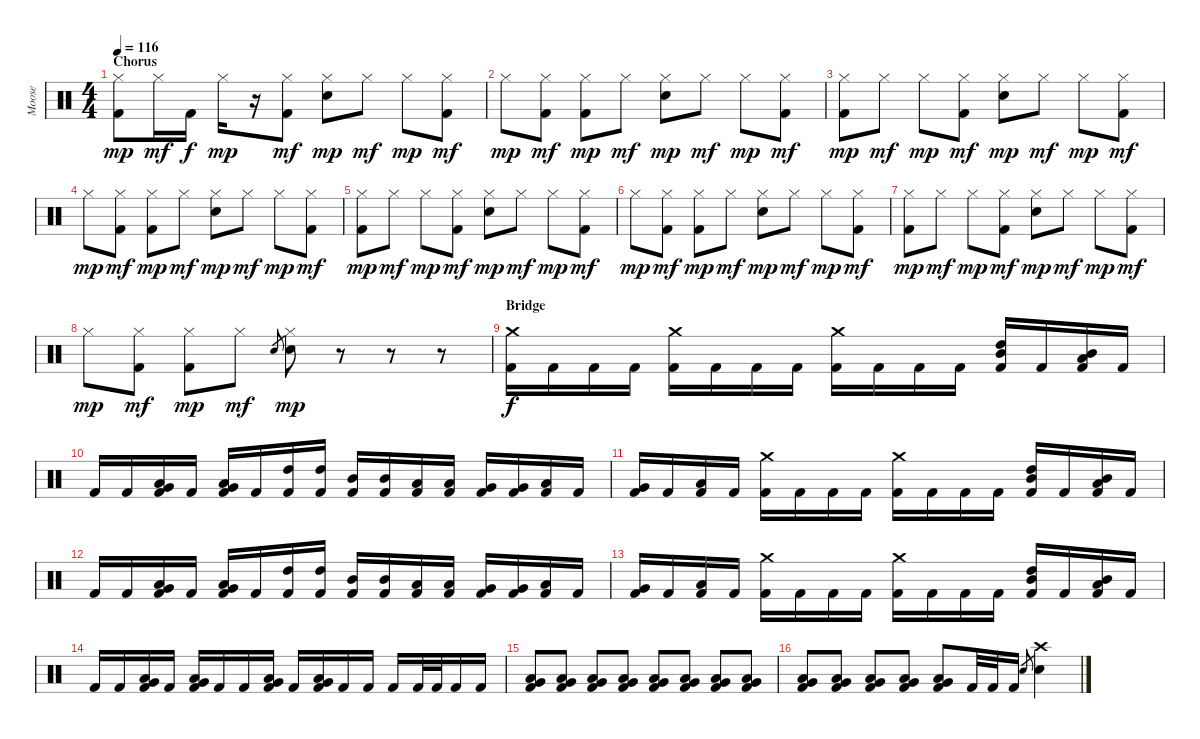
\track ("Moose" "Moose") {instrument percussion}
\staff {score}
\articulation defaults
\ts (4 4)
\section ("" "Chorus")
\tempo 116
\clef neutral
\ks c
("Kick (hit) 2" "Hi-Hat (closed)").8{dy mp} "Hi-Hat (closed)".16{dy mf} "Kick (hit) 2".16{dy f} "Hi-Hat (closed)".16{dy mp} r.16 ("Kick (hit) 2" "Hi-Hat (closed)").8{dy mf} ("Snare (hit) 2" "Hi-Hat (closed)").8{dy mp} "Hi-Hat (closed)".8{dy mf} "Hi-Hat (closed)".8{dy mp} ("Kick (hit) 2" "Hi-Hat (closed)").8{dy mf} |
"Hi-Hat (closed)".8{dy mp} ("Kick (hit) 2" "Hi-Hat (closed)").8{dy mf} ("Kick (hit) 2" "Hi-Hat (closed)").8{dy mp} "Hi-Hat (closed)".8{dy mf} ("Snare (hit) 2" "Hi-Hat (closed)").8{dy mp} "Hi-Hat (closed)".8{dy mf} "Hi-Hat (closed)".8{dy mp} ("Kick (hit) 2" "Hi-Hat (closed)").8{dy mf} |
("Kick (hit) 2" "Hi-Hat (closed)").8{dy mp} "Hi-Hat (closed)".8{dy mf} "Hi-Hat (closed)".8{dy mp} ("Kick (hit) 2" "Hi-Hat (closed)").8{dy mf} ("Snare (hit) 2" "Hi-Hat (closed)").8{dy mp} "Hi-Hat (closed)".8{dy mf} "Hi-Hat (closed)".8{dy mp} ("Kick (hit) 2" "Hi-Hat (closed)").8{dy mf} |
"Hi-Hat (closed)".8{dy mp} ("Kick (hit) 2" "Hi-Hat (closed)").8{dy mf} ("Kick (hit) 2" "Hi-Hat (closed)").8{dy mp} "Hi-Hat (closed)".8{dy mf} ("Snare (hit) 2" "Hi-Hat (closed)").8{dy mp} "Hi-Hat (closed)".8{dy mf} "Hi-Hat (closed)".8{dy mp} ("Kick (hit) 2" "Hi-Hat (closed)").8{dy mf} |
("Kick (hit) 2" "Hi-Hat (closed)").8{dy mp} "Hi-Hat (closed)".8{dy mf} "Hi-Hat (closed)".8{dy mp} ("Kick (hit) 2" "Hi-Hat (closed)").8{dy mf} ("Snare (hit) 2" "Hi-Hat (closed)").8{dy mp} "Hi-Hat (closed)".8{dy mf} "Hi-Hat (closed)".8{dy mp} ("Kick (hit) 2" "Hi-Hat (closed)").8{dy mf} |
"Hi-Hat (closed)".8{dy mp} ("Kick (hit) 2" "Hi-Hat (closed)").8{dy mf} ("Kick (hit) 2" "Hi-Hat (closed)").8{dy mp} "Hi-Hat (closed)".8{dy mf} ("Snare (hit) 2" "Hi-Hat (closed)").8{dy mp} "Hi-Hat (closed)".8{dy mf} "Hi-Hat (closed)".8{dy mp} ("Kick (hit) 2" "Hi-Hat (closed)").8{dy mf} |
("Kick (hit) 2" "Hi-Hat (closed)").8{dy mp} "Hi-Hat (closed)".8{dy mf} "Hi-Hat (closed)".8{dy mp} ("Kick (hit) 2" "Hi-Hat (closed)").8{dy mf} ("Snare (hit) 2" "Hi-Hat (closed)").8{dy mp} "Hi-Hat (closed)".8{dy mf} "Hi-Hat (closed)".8{dy mp} ("Kick (hit) 2" "Hi-Hat (closed)").8{dy mf} |
"Hi-Hat (closed)".8{dy mp} ("Kick (hit) 2" "Hi-Hat (closed)").8{dy mf} ("Kick (hit) 2" "Hi-Hat (closed)").8{dy mp} "Hi-Hat (closed)".8{dy mf} "Snare (hit) 2".8{gr} ("Snare (hit) 2" "Hi-Hat (closed)").8{dy mp} r.8 r.8 r.8 |
\section ("" "Bridge")
("Kick (hit) 2" "Crash medium (hit)").16{dy f} "Kick (hit) 2".16 "Kick (hit) 2".16 "Kick (hit) 2".16 ("Kick (hit) 2" "Crash medium (hit)").16 "Kick (hit) 2".16 "Kick (hit) 2".16 "Kick (hit) 2".16 ("Kick (hit) 2" "Crash medium (hit)").16 "Kick (hit) 2".16 "Kick (hit) 2".16 "Kick (hit) 2".16 ("Kick (hit) 2" "High Tom (hit)" "Mid Tom (hit)").16 "Kick (hit) 2".16 ("Kick (hit) 2" "Mid Tom (hit)" "Low Tom (hit)").16 "Kick (hit) 2".16 |
"Kick (hit) 2".16 "Kick (hit) 2".16 ("Kick (hit) 2" "Low Tom (hit)" "Very Low Tom (hit)").16 "Kick (hit) 2".16 ("Kick (hit) 2" "Very Low Tom (hit)" "Low Floor Tom (hit)").16 "Kick (hit) 2".16 ("Kick (hit) 2" "High Tom (hit)").16 ("Kick (hit) 2" "High Tom (hit)").16 ("Kick (hit) 2" "Mid Tom (hit)").16 ("Kick (hit) 2" "Mid Tom (hit)").16 ("Kick (hit) 2" "Low Tom (hit)").16 ("Kick (hit) 2" "Low Tom (hit)").16 ("Kick (hit) 2" "Very Low Tom (hit)").16 ("Kick (hit) 2" "Very Low Tom (hit)").16 ("Kick (hit) 2" "Low Floor Tom (hit)").16 "Kick (hit) 2".16 |
("Kick (hit) 2" "Very Low Tom (hit)").16 "Kick (hit) 2".16 ("Kick (hit) 2" "Low Floor Tom (hit)").16 "Kick (hit) 2".16 ("Kick (hit) 2" "Crash medium (hit)").16 "Kick (hit) 2".16 "Kick (hit) 2".16 "Kick (hit) 2".16 ("Kick (hit) 2" "Crash medium (hit)").16 "Kick (hit) 2".16 "Kick (hit) 2".16 "Kick (hit) 2".16 ("Kick (hit) 2" "High Tom (hit)" "Mid Tom (hit)").16 "Kick (hit) 2".16 ("Kick (hit) 2" "Mid Tom (hit)" "Low Tom (hit)").16 "Kick (hit) 2".16 |
"Kick (hit) 2".16 "Kick (hit) 2".16 ("Kick (hit) 2" "Low Tom (hit)" "Very Low Tom (hit)").16 "Kick (hit) 2".16 ("Kick (hit) 2" "Very Low Tom (hit)" "Low Floor Tom (hit)").16 "Kick (hit) 2".16 ("Kick (hit) 2" "High Tom (hit)").16 ("Kick (hit) 2" "High Tom (hit)").16 ("Kick (hit) 2" "Mid Tom (hit)").16 ("Kick (hit) 2" "Mid Tom (hit)").16 ("Kick (hit) 2" "Low Tom (hit)").16 ("Kick (hit) 2" "Low Tom (hit)").16 ("Kick (hit) 2" "Very Low Tom (hit)").16 ("Kick (hit) 2" "Very Low Tom (hit)").16 ("Kick (hit) 2" "Low Floor Tom (hit)").16 "Kick (hit) 2".16 |
("Kick (hit) 2" "Very Low Tom (hit)").16 "Kick (hit) 2".16 ("Kick (hit) 2" "Low Floor Tom (hit)").16 "Kick (hit) 2".16 ("Kick (hit) 2" "Crash medium (hit)").16 "Kick (hit) 2".16 "Kick (hit) 2".16 "Kick (hit) 2".16 ("Kick (hit) 2" "Crash medium (hit)").16 "Kick (hit) 2".16 "Kick (hit) 2".16 "Kick (hit) 2".16 ("Kick (hit) 2" "High Tom (hit)" "Mid Tom (hit)").16 "Kick (hit) 2".16 ("Kick (hit) 2" "Mid Tom (hit)" "Low Tom (hit)").16 "Kick (hit) 2".16 |
"Kick (hit) 2".16 "Kick (hit) 2".16 ("Kick (hit) 2" "Low Tom (hit)" "Very Low Tom (hit)").16 "Kick (hit) 2".16 ("Kick (hit) 2" "Very Low Tom (hit)" "Low Floor Tom (hit)").16 "Kick (hit) 2".16 "Kick (hit) 2".16 ("Kick (hit) 2" "Low Tom (hit)" "Very Low Tom (hit)").16 "Kick (hit) 2".16 ("Kick (hit) 2" "Very Low Tom (hit)" "Low Floor Tom (hit)").16 "Kick (hit) 2".16 "Kick (hit) 2".16 "Kick (hit) 2".16 "Kick (hit) 2".32 "Kick (hit) 2".32 "Kick (hit) 2".16 "Kick (hit) 2".16 |
("Kick (hit) 2" "Low Tom (hit)" "Very Low Tom (hit)").8 ("Kick (hit) 2" "Low Tom (hit)" "Very Low Tom (hit)").8 ("Kick (hit) 2" "Low Tom (hit)" "Very Low Tom (hit)").8 ("Kick (hit) 2" "Low Tom (hit)" "Very Low Tom (hit)").8 ("Kick (hit) 2" "Low Tom (hit)" "Very Low Tom (hit)").8 ("Kick (hit) 2" "Low Tom (hit)" "Very Low Tom (hit)").8 ("Kick (hit) 2" "Low Tom (hit)" "Very Low Tom (hit)").8 ("Kick (hit) 2" "Low Tom (hit)" "Very Low Tom (hit)").8 |
("Kick (hit) 2" "Low Tom (hit)" "Very Low Tom (hit)").8 ("Kick (hit) 2" "Low Tom (hit)" "Very Low Tom (hit)").8 ("Kick (hit) 2" "Low Tom (hit)" "Very Low Tom (hit)").8 ("Kick (hit) 2" "Low Tom (hit)" "Very Low Tom (hit)").8 ("Kick (hit) 2" "Low Tom (hit)" "Very Low Tom (hit)").8 "Kick (hit) 2".32 "Kick (hit) 2".32 "Kick (hit) 2".16 "Snare (hit) 2".8{gr} ("Snare (hit) 2" "Crash high (hit)").4
